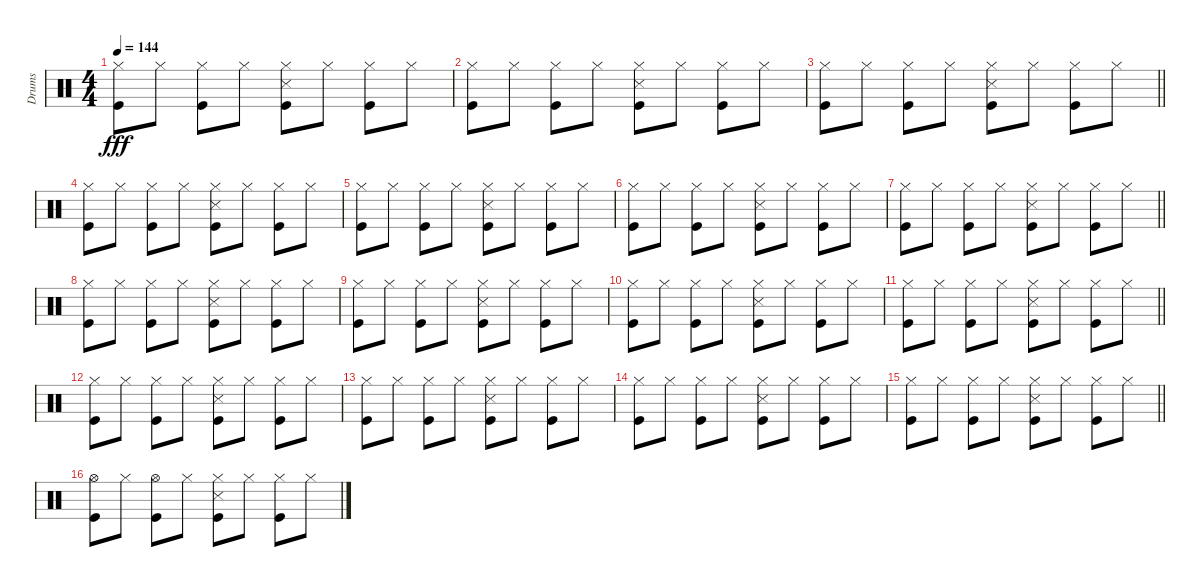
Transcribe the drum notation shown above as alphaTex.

\track ("Drums" "Drums") {instrument percussion}
\staff {score}
\articulation defaults
\ts (4 4)
\tempo 144
\clef neutral
\ks c
("Hi-Hat (closed)" "Kick (hit)").8{dy fff} "Hi-Hat (closed)".8 ("Hi-Hat (closed)" "Kick (hit)").8 "Hi-Hat (closed)".8 ("Kick (hit)" "Hi-Hat (closed)" "Snare (side stick) 3").8 "Hi-Hat (closed)".8 ("Hi-Hat (closed)" "Kick (hit)").8 "Hi-Hat (closed)".8 |
("Hi-Hat (closed)" "Kick (hit)").8 "Hi-Hat (closed)".8 ("Hi-Hat (closed)" "Kick (hit)").8 "Hi-Hat (closed)".8 ("Hi-Hat (closed)" "Kick (hit)" "Snare (side stick) 3").8 "Hi-Hat (closed)".8 ("Hi-Hat (closed)" "Kick (hit)").8 "Hi-Hat (closed)".8 |
\barLineRight lightlight
("Hi-Hat (closed)" "Kick (hit)").8 "Hi-Hat (closed)".8 ("Hi-Hat (closed)" "Kick (hit)").8 "Hi-Hat (closed)".8 ("Hi-Hat (closed)" "Kick (hit)" "Snare (side stick) 3").8 "Hi-Hat (closed)".8 ("Hi-Hat (closed)" "Kick (hit)").8 "Hi-Hat (closed)".8 |
("Hi-Hat (closed)" "Kick (hit)").8 "Hi-Hat (closed)".8 ("Hi-Hat (closed)" "Kick (hit)").8 "Hi-Hat (closed)".8 ("Hi-Hat (closed)" "Kick (hit)" "Snare (side stick) 3").8 "Hi-Hat (closed)".8 ("Hi-Hat (closed)" "Kick (hit)").8 "Hi-Hat (closed)".8 |
("Hi-Hat (closed)" "Kick (hit)").8 "Hi-Hat (closed)".8 ("Hi-Hat (closed)" "Kick (hit)").8 "Hi-Hat (closed)".8 ("Kick (hit)" "Hi-Hat (closed)" "Snare (side stick) 3").8 "Hi-Hat (closed)".8 ("Hi-Hat (closed)" "Kick (hit)").8 "Hi-Hat (closed)".8 |
("Hi-Hat (closed)" "Kick (hit)").8 "Hi-Hat (closed)".8 ("Hi-Hat (closed)" "Kick (hit)").8 "Hi-Hat (closed)".8 ("Hi-Hat (closed)" "Kick (hit)" "Snare (side stick) 3").8 "Hi-Hat (closed)".8 ("Hi-Hat (closed)" "Kick (hit)").8 "Hi-Hat (closed)".8 |
\barLineRight lightlight
("Hi-Hat (closed)" "Kick (hit)").8 "Hi-Hat (closed)".8 ("Hi-Hat (closed)" "Kick (hit)").8 "Hi-Hat (closed)".8 ("Hi-Hat (closed)" "Kick (hit)" "Snare (side stick) 3").8 "Hi-Hat (closed)".8 ("Hi-Hat (closed)" "Kick (hit)").8 "Hi-Hat (closed)".8 |
("Hi-Hat (closed)" "Kick (hit)").8 "Hi-Hat (closed)".8 ("Hi-Hat (closed)" "Kick (hit)").8 "Hi-Hat (closed)".8 ("Hi-Hat (closed)" "Kick (hit)" "Snare (side stick) 3").8 "Hi-Hat (closed)".8 ("Hi-Hat (closed)" "Kick (hit)").8 "Hi-Hat (closed)".8 |
("Hi-Hat (closed)" "Kick (hit)").8 "Hi-Hat (closed)".8 ("Hi-Hat (closed)" "Kick (hit)").8 "Hi-Hat (closed)".8 ("Kick (hit)" "Hi-Hat (closed)" "Snare (side stick) 3").8 "Hi-Hat (closed)".8 ("Hi-Hat (closed)" "Kick (hit)").8 "Hi-Hat (closed)".8 |
("Hi-Hat (closed)" "Kick (hit)").8 "Hi-Hat (closed)".8 ("Hi-Hat (closed)" "Kick (hit)").8 "Hi-Hat (closed)".8 ("Hi-Hat (closed)" "Kick (hit)" "Snare (side stick) 3").8 "Hi-Hat (closed)".8 ("Hi-Hat (closed)" "Kick (hit)").8 "Hi-Hat (closed)".8 |
\barLineRight lightlight
("Hi-Hat (closed)" "Kick (hit)").8 "Hi-Hat (closed)".8 ("Hi-Hat (closed)" "Kick (hit)").8 "Hi-Hat (closed)".8 ("Hi-Hat (closed)" "Kick (hit)" "Snare (side stick) 3").8 "Hi-Hat (closed)".8 ("Hi-Hat (closed)" "Kick (hit)").8 "Hi-Hat (closed)".8 |
("Hi-Hat (closed)" "Kick (hit)").8{volume 8} "Hi-Hat (closed)".8 ("Hi-Hat (closed)" "Kick (hit)").8 "Hi-Hat (closed)".8 ("Hi-Hat (closed)" "Kick (hit)" "Snare (side stick) 3").8 "Hi-Hat (closed)".8 ("Hi-Hat (closed)" "Kick (hit)").8 "Hi-Hat (closed)".8 |
("Hi-Hat (closed)" "Kick (hit)").8 "Hi-Hat (closed)".8 ("Hi-Hat (closed)" "Kick (hit)").8 "Hi-Hat (closed)".8 ("Kick (hit)" "Hi-Hat (closed)" "Snare (side stick) 3").8 "Hi-Hat (closed)".8 ("Hi-Hat (closed)" "Kick (hit)").8 "Hi-Hat (closed)".8 |
("Hi-Hat (closed)" "Kick (hit)").8 "Hi-Hat (closed)".8 ("Hi-Hat (closed)" "Kick (hit)").8 "Hi-Hat (closed)".8 ("Hi-Hat (closed)" "Kick (hit)" "Snare (side stick) 3").8 "Hi-Hat (closed)".8 ("Hi-Hat (closed)" "Kick (hit)").8 "Hi-Hat (closed)".8 |
\barLineRight lightlight
("Hi-Hat (closed)" "Kick (hit)").8 "Hi-Hat (closed)".8 ("Hi-Hat (closed)" "Kick (hit)").8 "Hi-Hat (closed)".8 ("Hi-Hat (closed)" "Kick (hit)" "Snare (side stick) 3").8 "Hi-Hat (closed)".8 ("Hi-Hat (closed)" "Kick (hit)").8 "Hi-Hat (closed)".8 |
("Hi-Hat (open)" "Kick (hit)").8{volume 4} "Hi-Hat (closed)".8 ("Hi-Hat (open)" "Kick (hit)").8 "Hi-Hat (closed)".8 ("Hi-Hat (closed)" "Kick (hit)" "Snare (side stick) 3").8 "Hi-Hat (closed)".8 ("Hi-Hat (closed)" "Kick (hit)").8 "Hi-Hat (closed)".8
